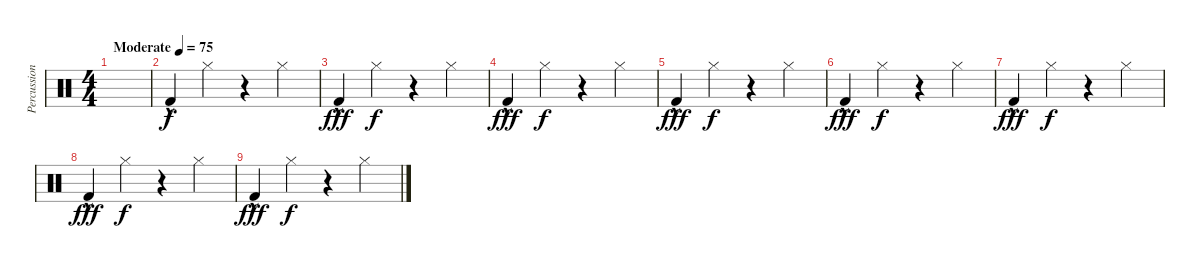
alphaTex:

\track ("Percussion" "Percussion") {instrument percussion}
\staff {score}
\articulation defaults
\ts (4 4)
\tempo (75 "Moderate")
\clef neutral
\ks c
|
"Kick (hit) 2"{hac}.4 "Hi-Hat (closed)".4{dy f} r.4 "Hi-Hat (closed)".4 |
"Kick (hit) 2"{hac}.4{dy fff} "Hi-Hat (closed)".4{dy f} r.4 "Hi-Hat (closed)".4 |
"Kick (hit) 2"{hac}.4{dy fff} "Hi-Hat (closed)".4{dy f} r.4 "Hi-Hat (closed)".4 |
"Kick (hit) 2"{hac}.4{dy fff} "Hi-Hat (closed)".4{dy f} r.4 "Hi-Hat (closed)".4 |
"Kick (hit) 2"{hac}.4{dy fff} "Hi-Hat (closed)".4{dy f} r.4 "Hi-Hat (closed)".4 |
"Kick (hit) 2"{hac}.4{dy fff} "Hi-Hat (closed)".4{dy f} r.4 "Hi-Hat (closed)".4 |
"Kick (hit) 2"{hac}.4{dy fff} "Hi-Hat (closed)".4{dy f} r.4 "Hi-Hat (closed)".4 |
"Kick (hit) 2"{hac}.4{dy fff} "Hi-Hat (closed)".4{dy f} r.4 "Hi-Hat (closed)".4
